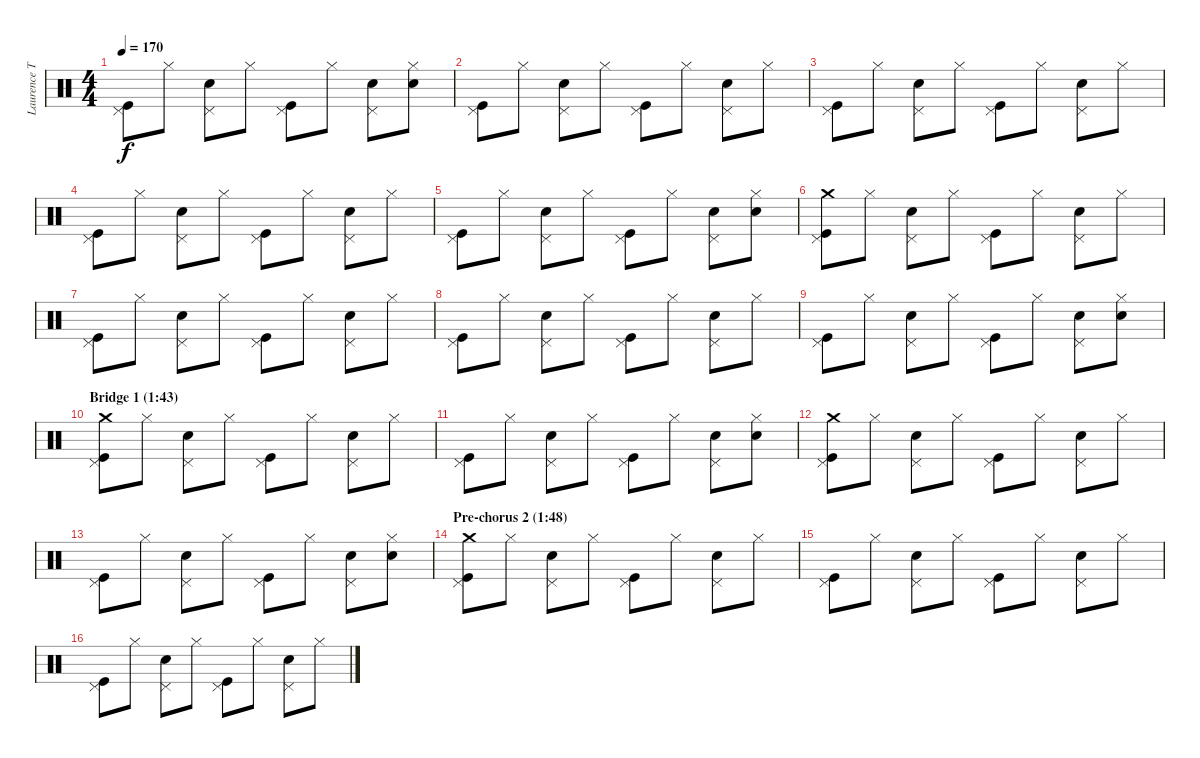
\track ("Laurence Tolhurst (drums)" "Laurence T") {instrument percussion}
\staff {score}
\articulation defaults
\ts (4 4)
\tempo 170
\clef neutral
\ks c
("Pedal Hi-Hat (hit)" "Kick (hit)").8{dy f} "Hi-Hat (closed)".8 ("Pedal Hi-Hat (hit)" "Snare (hit) 2").8 "Hi-Hat (closed)".8 ("Pedal Hi-Hat (hit)" "Kick (hit)").8 "Hi-Hat (closed)".8 ("Pedal Hi-Hat (hit)" "Snare (hit) 2").8 ("Hi-Hat (closed)" "Snare (hit) 2").8 |
("Pedal Hi-Hat (hit)" "Kick (hit)").8 "Hi-Hat (closed)".8 ("Pedal Hi-Hat (hit)" "Snare (hit) 2").8 "Hi-Hat (closed)".8 ("Pedal Hi-Hat (hit)" "Kick (hit)").8 "Hi-Hat (closed)".8 ("Pedal Hi-Hat (hit)" "Snare (hit) 2").8 "Hi-Hat (closed)".8 |
("Pedal Hi-Hat (hit)" "Kick (hit)").8 "Hi-Hat (closed)".8 ("Pedal Hi-Hat (hit)" "Snare (hit) 2").8 "Hi-Hat (closed)".8 ("Pedal Hi-Hat (hit)" "Kick (hit)").8 "Hi-Hat (closed)".8 ("Pedal Hi-Hat (hit)" "Snare (hit) 2").8 "Hi-Hat (closed)".8 |
("Pedal Hi-Hat (hit)" "Kick (hit)").8 "Hi-Hat (closed)".8 ("Pedal Hi-Hat (hit)" "Snare (hit) 2").8 "Hi-Hat (closed)".8 ("Pedal Hi-Hat (hit)" "Kick (hit)").8 "Hi-Hat (closed)".8 ("Pedal Hi-Hat (hit)" "Snare (hit) 2").8 "Hi-Hat (closed)".8 |
("Pedal Hi-Hat (hit)" "Kick (hit)").8 "Hi-Hat (closed)".8 ("Pedal Hi-Hat (hit)" "Snare (hit) 2").8 "Hi-Hat (closed)".8 ("Pedal Hi-Hat (hit)" "Kick (hit)").8 "Hi-Hat (closed)".8 ("Pedal Hi-Hat (hit)" "Snare (hit) 2").8 ("Hi-Hat (closed)" "Snare (hit) 2").8 |
("Crash medium (hit)" "Pedal Hi-Hat (hit)" "Kick (hit)").8 "Hi-Hat (closed)".8 ("Pedal Hi-Hat (hit)" "Snare (hit) 2").8 "Hi-Hat (closed)".8 ("Pedal Hi-Hat (hit)" "Kick (hit)").8 "Hi-Hat (closed)".8 ("Pedal Hi-Hat (hit)" "Snare (hit) 2").8 "Hi-Hat (closed)".8 |
("Pedal Hi-Hat (hit)" "Kick (hit)").8 "Hi-Hat (closed)".8 ("Pedal Hi-Hat (hit)" "Snare (hit) 2").8 "Hi-Hat (closed)".8 ("Pedal Hi-Hat (hit)" "Kick (hit)").8 "Hi-Hat (closed)".8 ("Pedal Hi-Hat (hit)" "Snare (hit) 2").8 "Hi-Hat (closed)".8 |
("Pedal Hi-Hat (hit)" "Kick (hit)").8 "Hi-Hat (closed)".8 ("Pedal Hi-Hat (hit)" "Snare (hit) 2").8 "Hi-Hat (closed)".8 ("Pedal Hi-Hat (hit)" "Kick (hit)").8 "Hi-Hat (closed)".8 ("Pedal Hi-Hat (hit)" "Snare (hit) 2").8 "Hi-Hat (closed)".8 |
("Pedal Hi-Hat (hit)" "Kick (hit)").8 "Hi-Hat (closed)".8 ("Pedal Hi-Hat (hit)" "Snare (hit) 2").8 "Hi-Hat (closed)".8 ("Pedal Hi-Hat (hit)" "Kick (hit)").8 "Hi-Hat (closed)".8 ("Pedal Hi-Hat (hit)" "Snare (hit) 2").8 ("Hi-Hat (closed)" "Snare (hit) 2").8 |
\section ("" "Bridge 1 (1:43)")
("Crash medium (hit)" "Pedal Hi-Hat (hit)" "Kick (hit)").8 "Hi-Hat (closed)".8 ("Pedal Hi-Hat (hit)" "Snare (hit) 2").8 "Hi-Hat (closed)".8 ("Pedal Hi-Hat (hit)" "Kick (hit)").8 "Hi-Hat (closed)".8 ("Pedal Hi-Hat (hit)" "Snare (hit) 2").8 "Hi-Hat (closed)".8 |
("Pedal Hi-Hat (hit)" "Kick (hit)").8 "Hi-Hat (closed)".8 ("Pedal Hi-Hat (hit)" "Snare (hit) 2").8 "Hi-Hat (closed)".8 ("Pedal Hi-Hat (hit)" "Kick (hit)").8 "Hi-Hat (closed)".8 ("Pedal Hi-Hat (hit)" "Snare (hit) 2").8 ("Hi-Hat (closed)" "Snare (hit) 2").8 |
("Crash medium (hit)" "Pedal Hi-Hat (hit)" "Kick (hit)").8 "Hi-Hat (closed)".8 ("Pedal Hi-Hat (hit)" "Snare (hit) 2").8 "Hi-Hat (closed)".8 ("Pedal Hi-Hat (hit)" "Kick (hit)").8 "Hi-Hat (closed)".8 ("Pedal Hi-Hat (hit)" "Snare (hit) 2").8 "Hi-Hat (closed)".8 |
("Pedal Hi-Hat (hit)" "Kick (hit)").8 "Hi-Hat (closed)".8 ("Pedal Hi-Hat (hit)" "Snare (hit) 2").8 "Hi-Hat (closed)".8 ("Pedal Hi-Hat (hit)" "Kick (hit)").8 "Hi-Hat (closed)".8 ("Pedal Hi-Hat (hit)" "Snare (hit) 2").8 ("Hi-Hat (closed)" "Snare (hit) 2").8 |
\section ("" "Pre-chorus 2 (1:48)")
("Crash medium (hit)" "Pedal Hi-Hat (hit)" "Kick (hit)").8 "Hi-Hat (closed)".8 ("Pedal Hi-Hat (hit)" "Snare (hit) 2").8 "Hi-Hat (closed)".8 ("Pedal Hi-Hat (hit)" "Kick (hit)").8 "Hi-Hat (closed)".8 ("Pedal Hi-Hat (hit)" "Snare (hit) 2").8 "Hi-Hat (closed)".8 |
("Pedal Hi-Hat (hit)" "Kick (hit)").8 "Hi-Hat (closed)".8 ("Pedal Hi-Hat (hit)" "Snare (hit) 2").8 "Hi-Hat (closed)".8 ("Pedal Hi-Hat (hit)" "Kick (hit)").8 "Hi-Hat (closed)".8 ("Pedal Hi-Hat (hit)" "Snare (hit) 2").8 "Hi-Hat (closed)".8 |
("Pedal Hi-Hat (hit)" "Kick (hit)").8 "Hi-Hat (closed)".8 ("Pedal Hi-Hat (hit)" "Snare (hit) 2").8 "Hi-Hat (closed)".8 ("Pedal Hi-Hat (hit)" "Kick (hit)").8 "Hi-Hat (closed)".8 ("Pedal Hi-Hat (hit)" "Snare (hit) 2").8 "Hi-Hat (closed)".8
